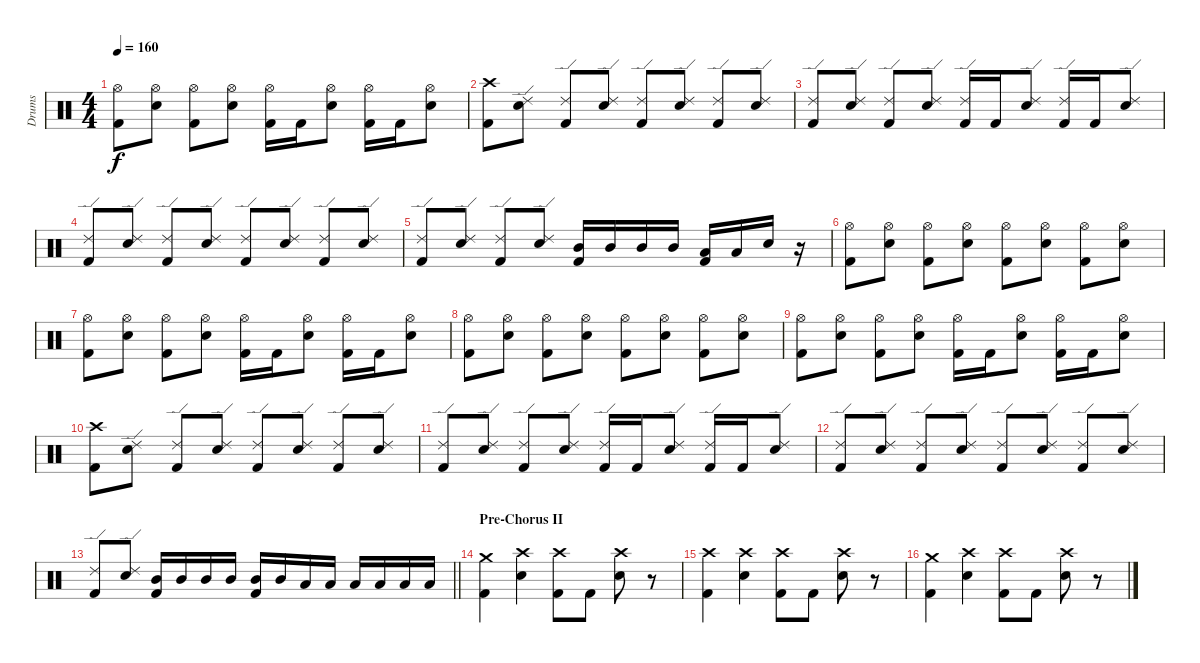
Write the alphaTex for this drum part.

\track ("Drums" "Drums") {instrument percussion}
\staff {score}
\articulation defaults
\ts (4 4)
\tempo 160
\clef neutral
\ks c
("Hi-Hat (open)" "Kick (hit) 2").8{dy f} ("Hi-Hat (open)" "Electric Snare (hit)").8 ("Hi-Hat (open)" "Kick (hit) 2").8 ("Hi-Hat (open)" "Electric Snare (hit)").8 ("Hi-Hat (open)" "Kick (hit) 2").16 "Kick (hit) 2".16 ("Hi-Hat (open)" "Electric Snare (hit)").8 ("Hi-Hat (open)" "Kick (hit) 2").16 "Kick (hit) 2".16 ("Hi-Hat (open)" "Electric Snare (hit)").8 |
("Crash high (hit)" "Kick (hit) 2").8 ("Ride (edge) 2" "Electric Snare (hit)").8 ("Ride (edge) 2" "Kick (hit) 2").8 ("Ride (edge) 2" "Electric Snare (hit)").8 ("Ride (edge) 2" "Kick (hit) 2").8 ("Ride (edge) 2" "Electric Snare (hit)").8 ("Ride (edge) 2" "Kick (hit) 2").8 ("Ride (edge) 2" "Electric Snare (hit)").8 |
("Ride (edge) 2" "Kick (hit) 2").8 ("Ride (edge) 2" "Electric Snare (hit)").8 ("Ride (edge) 2" "Kick (hit) 2").8 ("Ride (edge) 2" "Electric Snare (hit)").8 ("Ride (edge) 2" "Kick (hit) 2").16 "Kick (hit) 2".16 ("Ride (edge) 2" "Electric Snare (hit)").8 ("Ride (edge) 2" "Kick (hit) 2").16 "Kick (hit) 2".16 ("Ride (edge) 2" "Electric Snare (hit)").8 |
("Ride (edge) 2" "Kick (hit) 2").8 ("Ride (edge) 2" "Electric Snare (hit)").8 ("Ride (edge) 2" "Kick (hit) 2").8 ("Ride (edge) 2" "Electric Snare (hit)").8 ("Ride (edge) 2" "Kick (hit) 2").8 ("Ride (edge) 2" "Electric Snare (hit)").8 ("Ride (edge) 2" "Kick (hit) 2").8 ("Ride (edge) 2" "Electric Snare (hit)").8 |
("Ride (edge) 2" "Kick (hit) 2").8 ("Ride (edge) 2" "Electric Snare (hit)").8 ("Ride (edge) 2" "Kick (hit) 2").8 ("Ride (edge) 2" "Electric Snare (hit)").8 ("Mid Tom (hit)" "Kick (hit) 2").16 "Mid Tom (hit)".16 "Mid Tom (hit)".16 "Mid Tom (hit)".16 ("Low Tom (hit)" "Kick (hit) 2").16 "Low Tom (hit)".16 "Electric Snare (hit)".16 r.16 |
("Hi-Hat (open)" "Kick (hit) 2").8 ("Hi-Hat (open)" "Electric Snare (hit)").8 ("Hi-Hat (open)" "Kick (hit) 2").8 ("Hi-Hat (open)" "Electric Snare (hit)").8 ("Hi-Hat (open)" "Kick (hit) 2").8 ("Hi-Hat (open)" "Electric Snare (hit)").8 ("Hi-Hat (open)" "Kick (hit) 2").8 ("Hi-Hat (open)" "Electric Snare (hit)").8 |
("Hi-Hat (open)" "Kick (hit) 2").8 ("Hi-Hat (open)" "Electric Snare (hit)").8 ("Hi-Hat (open)" "Kick (hit) 2").8 ("Hi-Hat (open)" "Electric Snare (hit)").8 ("Hi-Hat (open)" "Kick (hit) 2").16 "Kick (hit) 2".16 ("Hi-Hat (open)" "Electric Snare (hit)").8 ("Hi-Hat (open)" "Kick (hit) 2").16 "Kick (hit) 2".16 ("Hi-Hat (open)" "Electric Snare (hit)").8 |
("Hi-Hat (open)" "Kick (hit) 2").8 ("Hi-Hat (open)" "Electric Snare (hit)").8 ("Hi-Hat (open)" "Kick (hit) 2").8 ("Hi-Hat (open)" "Electric Snare (hit)").8 ("Hi-Hat (open)" "Kick (hit) 2").8 ("Hi-Hat (open)" "Electric Snare (hit)").8 ("Hi-Hat (open)" "Kick (hit) 2").8 ("Hi-Hat (open)" "Electric Snare (hit)").8 |
("Hi-Hat (open)" "Kick (hit) 2").8 ("Hi-Hat (open)" "Electric Snare (hit)").8 ("Hi-Hat (open)" "Kick (hit) 2").8 ("Hi-Hat (open)" "Electric Snare (hit)").8 ("Hi-Hat (open)" "Kick (hit) 2").16 "Kick (hit) 2".16 ("Hi-Hat (open)" "Electric Snare (hit)").8 ("Hi-Hat (open)" "Kick (hit) 2").16 "Kick (hit) 2".16 ("Hi-Hat (open)" "Electric Snare (hit)").8 |
("Crash high (hit)" "Kick (hit) 2").8 ("Ride (edge) 2" "Electric Snare (hit)").8 ("Ride (edge) 2" "Kick (hit) 2").8 ("Ride (edge) 2" "Electric Snare (hit)").8 ("Ride (edge) 2" "Kick (hit) 2").8 ("Ride (edge) 2" "Electric Snare (hit)").8 ("Ride (edge) 2" "Kick (hit) 2").8 ("Ride (edge) 2" "Electric Snare (hit)").8 |
("Ride (edge) 2" "Kick (hit) 2").8 ("Ride (edge) 2" "Electric Snare (hit)").8 ("Ride (edge) 2" "Kick (hit) 2").8 ("Ride (edge) 2" "Electric Snare (hit)").8 ("Ride (edge) 2" "Kick (hit) 2").16 "Kick (hit) 2".16 ("Ride (edge) 2" "Electric Snare (hit)").8 ("Ride (edge) 2" "Kick (hit) 2").16 "Kick (hit) 2".16 ("Ride (edge) 2" "Electric Snare (hit)").8 |
("Ride (edge) 2" "Kick (hit) 2").8 ("Ride (edge) 2" "Electric Snare (hit)").8 ("Ride (edge) 2" "Kick (hit) 2").8 ("Ride (edge) 2" "Electric Snare (hit)").8 ("Ride (edge) 2" "Kick (hit) 2").8 ("Ride (edge) 2" "Electric Snare (hit)").8 ("Ride (edge) 2" "Kick (hit) 2").8 ("Ride (edge) 2" "Electric Snare (hit)").8 |
\barLineRight lightlight
("Ride (edge) 2" "Kick (hit) 2").8 ("Ride (edge) 2" "Electric Snare (hit)").8 ("Mid Tom (hit)" "Kick (hit) 2").16 "Mid Tom (hit)".16 "Mid Tom (hit)".16 "Mid Tom (hit)".16 ("Mid Tom (hit)" "Kick (hit) 2").16 "Mid Tom (hit)".16 "Low Tom (hit)".16 "Low Tom (hit)".16 "Low Tom (hit)".16 "Low Tom (hit)".16 "Low Tom (hit)".16 "Low Tom (hit)".16 |
\section ("" "Pre-Chorus II")
("Crash medium (hit)" "Kick (hit) 2").4 ("Crash high (hit)" "Electric Snare (hit)").4 ("Crash high (hit)" "Kick (hit) 2").8 "Kick (hit) 2".8 ("Crash high (hit)" "Electric Snare (hit)").8 r.8 |
("Crash high (hit)" "Kick (hit) 2").4 ("Crash high (hit)" "Electric Snare (hit)").4 ("Crash high (hit)" "Kick (hit) 2").8 "Kick (hit) 2".8 ("Crash high (hit)" "Electric Snare (hit)").8 r.8 |
("Crash medium (hit)" "Kick (hit) 2").4 ("Crash high (hit)" "Electric Snare (hit)").4 ("Crash high (hit)" "Kick (hit) 2").8 "Kick (hit) 2".8 ("Crash high (hit)" "Electric Snare (hit)").8 r.8
